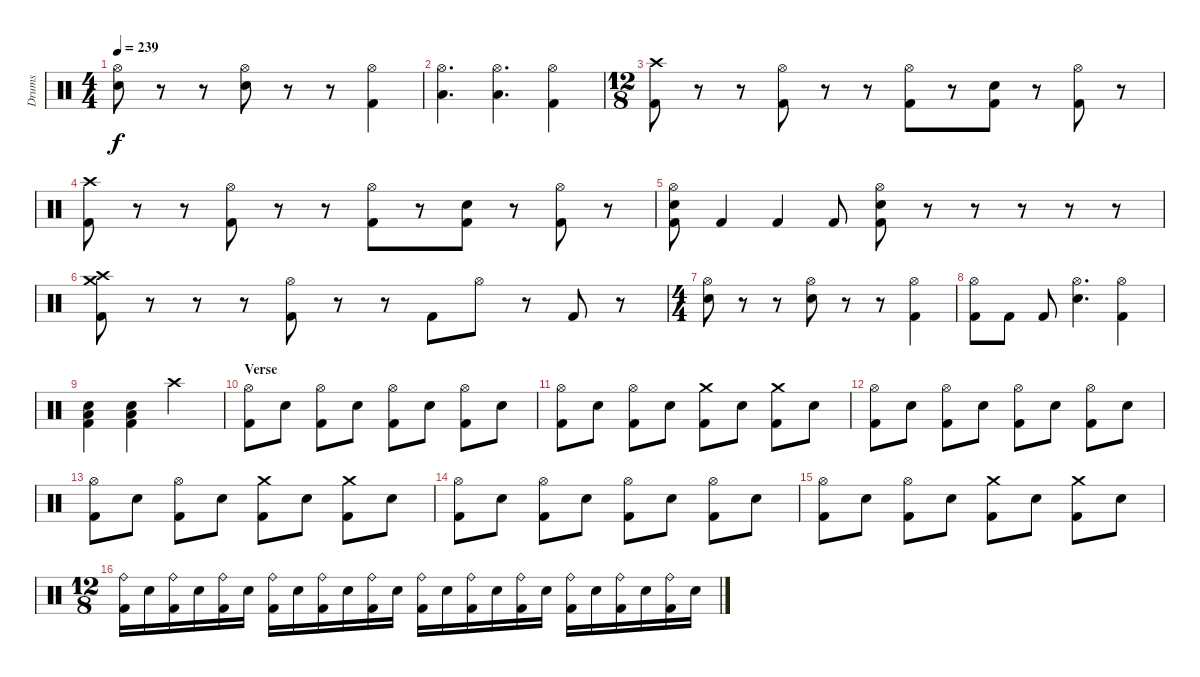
\track ("Drums" "Drums") {instrument percussion}
\staff {score}
\articulation defaults
\ts (4 4)
\tempo 239
\clef neutral
\ks c
("Hi-Hat (open)" "Electric Snare (hit)").8{dy f} r.8 r.8 ("Hi-Hat (open)" "Electric Snare (hit)").8 r.8 r.8 ("Hi-Hat (open)" "Kick (hit) 2").4 |
("Hi-Hat (open)" "Low Tom (hit)").4{d} ("Hi-Hat (open)" "Low Tom (hit)").4{d} ("Hi-Hat (open)" "Kick (hit) 2").4 |
\ts (12 8)
("Crash high (hit)" "Kick (hit) 2").8 r.8 r.8 ("Hi-Hat (open)" "Kick (hit) 2").8 r.8 r.8 ("Hi-Hat (open)" "Kick (hit) 2").8 r.8 ("Electric Snare (hit)" "Kick (hit) 2").8 r.8 ("Hi-Hat (open)" "Kick (hit) 2").8 r.8 |
("Crash high (hit)" "Kick (hit) 2").8 r.8 r.8 ("Hi-Hat (open)" "Kick (hit) 2").8 r.8 r.8 ("Hi-Hat (open)" "Kick (hit) 2").8 r.8 ("Electric Snare (hit)" "Kick (hit) 2").8 r.8 ("Hi-Hat (open)" "Kick (hit) 2").8 r.8 |
("Hi-Hat (open)" "Electric Snare (hit)" "Kick (hit) 2").8 "Kick (hit) 2".4 "Kick (hit) 2".4 "Kick (hit) 2".8 ("Hi-Hat (open)" "Electric Snare (hit)" "Kick (hit) 2").8 r.8 r.8 r.8 r.8 r.8 |
("Crash high (hit)" "Crash medium (hit)" "Kick (hit) 2").8 r.8 r.8 r.8 ("Hi-Hat (open)" "Kick (hit) 2").8 r.8 r.8 "Kick (hit) 2".8 "Hi-Hat (open)".8 r.8 "Kick (hit) 2".8 r.8 |
\ts (4 4)
("Hi-Hat (open)" "Electric Snare (hit)").8 r.8 r.8 ("Hi-Hat (open)" "Electric Snare (hit)").8 r.8 r.8 ("Hi-Hat (open)" "Kick (hit) 2").4 |
("Hi-Hat (open)" "Kick (hit) 2").8 "Kick (hit) 2".8 "Kick (hit) 2".8 ("Hi-Hat (open)" "Electric Snare (hit)").4{d} ("Hi-Hat (open)" "Kick (hit) 2").4 |
("Low Tom (hit)" "Electric Snare (hit)" "Kick (hit) 2").4 ("Low Tom (hit)" "Electric Snare (hit)" "Kick (hit) 2").4 "Crash high (hit)".2 |
\section ("" "Verse")
("Hi-Hat (open)" "Kick (hit) 2").8 "Electric Snare (hit)".8 ("Hi-Hat (open)" "Kick (hit) 2").8 "Electric Snare (hit)".8 ("Hi-Hat (open)" "Kick (hit) 2").8 "Electric Snare (hit)".8 ("Hi-Hat (open)" "Kick (hit) 2").8 "Electric Snare (hit)".8 |
("Hi-Hat (open)" "Kick (hit) 2").8 "Electric Snare (hit)".8 ("Hi-Hat (open)" "Kick (hit) 2").8 "Electric Snare (hit)".8 ("Crash medium (hit)" "Kick (hit) 2").8 "Electric Snare (hit)".8 ("Crash medium (hit)" "Kick (hit) 2").8 "Electric Snare (hit)".8 |
("Hi-Hat (open)" "Kick (hit) 2").8 "Electric Snare (hit)".8 ("Hi-Hat (open)" "Kick (hit) 2").8 "Electric Snare (hit)".8 ("Hi-Hat (open)" "Kick (hit) 2").8 "Electric Snare (hit)".8 ("Hi-Hat (open)" "Kick (hit) 2").8 "Electric Snare (hit)".8 |
("Hi-Hat (open)" "Kick (hit) 2").8 "Electric Snare (hit)".8 ("Hi-Hat (open)" "Kick (hit) 2").8 "Electric Snare (hit)".8 ("Crash medium (hit)" "Kick (hit) 2").8 "Electric Snare (hit)".8 ("Crash medium (hit)" "Kick (hit) 2").8 "Electric Snare (hit)".8 |
("Hi-Hat (open)" "Kick (hit) 2").8 "Electric Snare (hit)".8 ("Hi-Hat (open)" "Kick (hit) 2").8 "Electric Snare (hit)".8 ("Hi-Hat (open)" "Kick (hit) 2").8 "Electric Snare (hit)".8 ("Hi-Hat (open)" "Kick (hit) 2").8 "Electric Snare (hit)".8 |
("Hi-Hat (open)" "Kick (hit) 2").8 "Electric Snare (hit)".8 ("Hi-Hat (open)" "Kick (hit) 2").8 "Electric Snare (hit)".8 ("Crash medium (hit)" "Kick (hit) 2").8 "Electric Snare (hit)".8 ("Crash medium (hit)" "Kick (hit) 2").8 "Electric Snare (hit)".8 |
\ts (12 8)
("Ride (bell)" "Kick (hit) 2").16 "Electric Snare (hit)".16 ("Ride (bell)" "Kick (hit) 2").16 "Electric Snare (hit)".16 ("Ride (bell)" "Kick (hit) 2").16 "Electric Snare (hit)".16 ("Ride (bell)" "Kick (hit) 2").16 "Electric Snare (hit)".16 ("Ride (bell)" "Kick (hit) 2").16 "Electric Snare (hit)".16 ("Ride (bell)" "Kick (hit) 2").16 "Electric Snare (hit)".16 ("Ride (bell)" "Kick (hit) 2").16 "Electric Snare (hit)".16 ("Ride (bell)" "Kick (hit) 2").16 "Electric Snare (hit)".16 ("Ride (bell)" "Kick (hit) 2").16 "Electric Snare (hit)".16 ("Ride (bell)" "Kick (hit) 2").16 "Electric Snare (hit)".16 ("Ride (bell)" "Kick (hit) 2").16 "Electric Snare (hit)".16 ("Ride (bell)" "Kick (hit) 2").16 "Electric Snare (hit)".16
